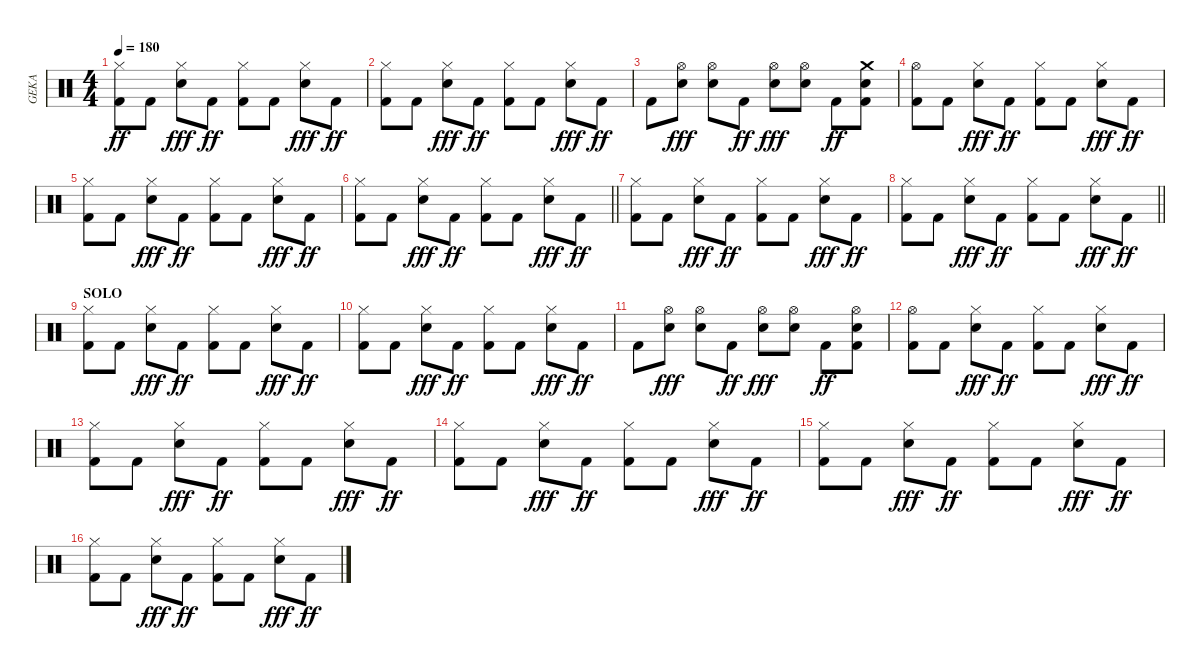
\track ("GEKA" "GEKA") {instrument percussion}
\staff {score}
\articulation defaults
\ts (4 4)
\tempo 180
\clef neutral
\ks c
("Hi-Hat (closed)" "Kick (hit) 2").8{dy ff} "Kick (hit) 2".8 ("Hi-Hat (closed)" "Snare (hit) 2").8{dy fff} "Kick (hit) 2".8{dy ff} ("Hi-Hat (closed)" "Kick (hit) 2").8 "Kick (hit) 2".8 ("Hi-Hat (closed)" "Snare (hit) 2").8{dy fff} "Kick (hit) 2".8{dy ff} |
("Hi-Hat (closed)" "Kick (hit) 2").8 "Kick (hit) 2".8 ("Hi-Hat (closed)" "Snare (hit) 2").8{dy fff} "Kick (hit) 2".8{dy ff} ("Hi-Hat (closed)" "Kick (hit) 2").8 "Kick (hit) 2".8 ("Hi-Hat (closed)" "Snare (hit) 2").8{dy fff} "Kick (hit) 2".8{dy ff} |
"Kick (hit) 2".8 ("Hi-Hat (open)" "Snare (hit) 2").8{dy fff} ("Hi-Hat (open)" "Snare (hit) 2").8 "Kick (hit) 2".8{dy ff} ("Hi-Hat (open)" "Snare (hit) 2").8{dy fff} ("Hi-Hat (open)" "Snare (hit) 2").8 "Kick (hit) 2".8{dy ff} ("Crash medium (hit)" "Snare (hit) 2" "Kick (hit) 2").8 |
("Hi-Hat (open)" "Kick (hit) 2").8 "Kick (hit) 2".8 ("Hi-Hat (closed)" "Snare (hit) 2").8{dy fff} "Kick (hit) 2".8{dy ff} ("Hi-Hat (closed)" "Kick (hit) 2").8 "Kick (hit) 2".8 ("Hi-Hat (closed)" "Snare (hit) 2").8{dy fff} "Kick (hit) 2".8{dy ff} |
("Hi-Hat (closed)" "Kick (hit) 2").8 "Kick (hit) 2".8 ("Hi-Hat (closed)" "Snare (hit) 2").8{dy fff} "Kick (hit) 2".8{dy ff} ("Hi-Hat (closed)" "Kick (hit) 2").8 "Kick (hit) 2".8 ("Hi-Hat (closed)" "Snare (hit) 2").8{dy fff} "Kick (hit) 2".8{dy ff} |
\barLineRight lightlight
("Hi-Hat (closed)" "Kick (hit) 2").8 "Kick (hit) 2".8 ("Hi-Hat (closed)" "Snare (hit) 2").8{dy fff} "Kick (hit) 2".8{dy ff} ("Hi-Hat (closed)" "Kick (hit) 2").8 "Kick (hit) 2".8 ("Hi-Hat (closed)" "Snare (hit) 2").8{dy fff} "Kick (hit) 2".8{dy ff} |
("Hi-Hat (closed)" "Kick (hit) 2").8 "Kick (hit) 2".8 ("Hi-Hat (closed)" "Snare (hit) 2").8{dy fff} "Kick (hit) 2".8{dy ff} ("Hi-Hat (closed)" "Kick (hit) 2").8 "Kick (hit) 2".8 ("Hi-Hat (closed)" "Snare (hit) 2").8{dy fff} "Kick (hit) 2".8{dy ff} |
\barLineRight lightlight
("Hi-Hat (closed)" "Kick (hit) 2").8 "Kick (hit) 2".8 ("Hi-Hat (closed)" "Snare (hit) 2").8{dy fff} "Kick (hit) 2".8{dy ff} ("Hi-Hat (closed)" "Kick (hit) 2").8 "Kick (hit) 2".8 ("Hi-Hat (closed)" "Snare (hit) 2").8{dy fff} "Kick (hit) 2".8{dy ff} |
\section ("" "SOLO")
("Hi-Hat (closed)" "Kick (hit) 2").8 "Kick (hit) 2".8 ("Hi-Hat (closed)" "Snare (hit) 2").8{dy fff} "Kick (hit) 2".8{dy ff} ("Hi-Hat (closed)" "Kick (hit) 2").8 "Kick (hit) 2".8 ("Hi-Hat (closed)" "Snare (hit) 2").8{dy fff} "Kick (hit) 2".8{dy ff} |
("Hi-Hat (closed)" "Kick (hit) 2").8 "Kick (hit) 2".8 ("Hi-Hat (closed)" "Snare (hit) 2").8{dy fff} "Kick (hit) 2".8{dy ff} ("Hi-Hat (closed)" "Kick (hit) 2").8 "Kick (hit) 2".8 ("Hi-Hat (closed)" "Snare (hit) 2").8{dy fff} "Kick (hit) 2".8{dy ff} |
"Kick (hit) 2".8 ("Hi-Hat (open)" "Snare (hit) 2").8{dy fff} ("Hi-Hat (open)" "Snare (hit) 2").8 "Kick (hit) 2".8{dy ff} ("Hi-Hat (open)" "Snare (hit) 2").8{dy fff} ("Hi-Hat (open)" "Snare (hit) 2").8 "Kick (hit) 2".8{dy ff} ("Hi-Hat (open)" "Snare (hit) 2" "Kick (hit) 2").8 |
("Hi-Hat (open)" "Kick (hit) 2").8 "Kick (hit) 2".8 ("Hi-Hat (closed)" "Snare (hit) 2").8{dy fff} "Kick (hit) 2".8{dy ff} ("Hi-Hat (closed)" "Kick (hit) 2").8 "Kick (hit) 2".8 ("Hi-Hat (closed)" "Snare (hit) 2").8{dy fff} "Kick (hit) 2".8{dy ff} |
("Hi-Hat (closed)" "Kick (hit) 2").8 "Kick (hit) 2".8 ("Hi-Hat (closed)" "Snare (hit) 2").8{dy fff} "Kick (hit) 2".8{dy ff} ("Hi-Hat (closed)" "Kick (hit) 2").8 "Kick (hit) 2".8 ("Hi-Hat (closed)" "Snare (hit) 2").8{dy fff} "Kick (hit) 2".8{dy ff} |
("Hi-Hat (closed)" "Kick (hit) 2").8 "Kick (hit) 2".8 ("Hi-Hat (closed)" "Snare (hit) 2").8{dy fff} "Kick (hit) 2".8{dy ff} ("Hi-Hat (closed)" "Kick (hit) 2").8 "Kick (hit) 2".8 ("Hi-Hat (closed)" "Snare (hit) 2").8{dy fff} "Kick (hit) 2".8{dy ff} |
("Hi-Hat (closed)" "Kick (hit) 2").8 "Kick (hit) 2".8 ("Hi-Hat (closed)" "Snare (hit) 2").8{dy fff} "Kick (hit) 2".8{dy ff} ("Hi-Hat (closed)" "Kick (hit) 2").8 "Kick (hit) 2".8 ("Hi-Hat (closed)" "Snare (hit) 2").8{dy fff} "Kick (hit) 2".8{dy ff} |
("Hi-Hat (closed)" "Kick (hit) 2").8 "Kick (hit) 2".8 ("Hi-Hat (closed)" "Snare (hit) 2").8{dy fff} "Kick (hit) 2".8{dy ff} ("Hi-Hat (closed)" "Kick (hit) 2").8 "Kick (hit) 2".8 ("Hi-Hat (closed)" "Snare (hit) 2").8{dy fff} "Kick (hit) 2".8{dy ff}
